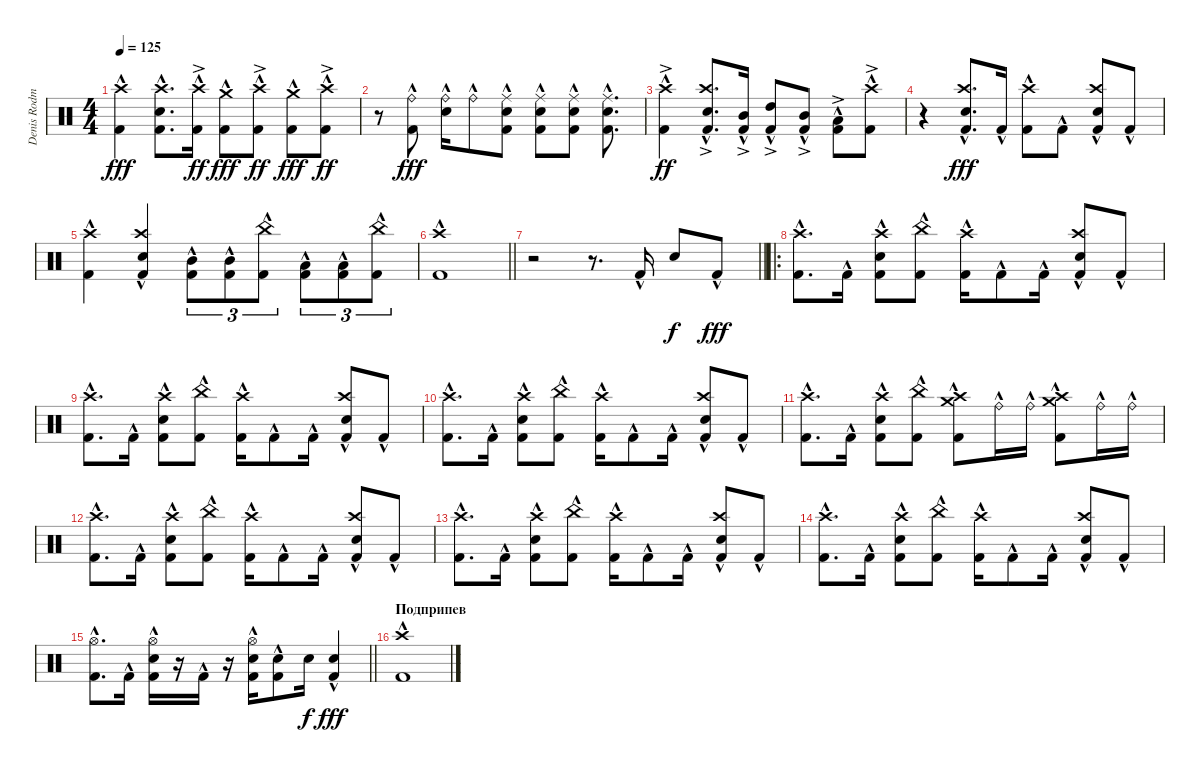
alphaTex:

\track ("Denis Rodman" "Denis Rodm") {instrument percussion}
\staff {score}
\articulation defaults
\ts (4 4)
\tempo 125
\clef neutral
\ks c
("Kick (hit) 2"{hac} "Crash high (hit)"{hac}).4{dy fff} ("Kick (hit) 2"{hac} "Snare (hit) 2" "Crash high (hit)"{hac}).8{d} ("Kick (hit) 2"{hac} "Crash high (hit)"{ac}).16{dy ff} ("Kick (hit) 2"{hac} "Crash medium (hit)"{hac}).8{dy fff} ("Kick (hit) 2"{hac} "Crash high (hit)"{ac}).8{dy ff} ("Kick (hit) 2"{hac} "Crash medium (hit)"{hac}).8{dy fff} ("Kick (hit) 2"{hac} "Crash high (hit)"{ac}).8{dy ff} |
r.8 ("Ride (bell)"{hac} "Kick (hit) 2"{hac}).8{dy fff} ("Ride (bell)"{hac} "Snare (hit) 2").16 "Ride (bell)"{hac}.8 ("Kick (hit) 2"{hac} "Snare (hit) 2" "Ride (middle)"{hac}).8 ("Kick (hit) 2"{hac} "Snare (hit) 2" "Ride (middle)"{hac}).8 ("Kick (hit) 2"{hac} "Snare (hit) 2" "Ride (middle)"{hac}).8 ("Kick (hit) 2"{hac} "Snare (hit) 2" "Ride (middle)"{hac}).8{d} |
("Kick (hit) 2"{hac} "Crash high (hit)"{ac}).4{dy ff} ("Kick (hit) 2"{hac} "Snare (hit) 2" "Crash high (hit)"{ac}).8{d} ("Kick (hit) 2"{hac} "Mid Tom (hit)"{ac}).16 ("Kick (hit) 2"{hac} "High Tom (hit)"{ac}).8 ("Kick (hit) 2"{hac} "Mid Tom (hit)"{ac}).8 ("Kick (hit) 2"{hac} "Low Tom (hit)"{ac}).8 ("Kick (hit) 2"{hac} "Crash high (hit)"{ac}).8 |
r.4 ("Kick (hit) 2"{hac} "Snare (hit) 2" "Crash high (hit)").8{d dy fff} "Kick (hit) 2"{hac}.16 ("Kick (hit) 2"{hac} "Crash high (hit)").8 "Kick (hit) 2"{hac}.8 ("Kick (hit) 2"{hac} "Snare (hit) 2" "Crash high (hit)").8 "Kick (hit) 2"{hac}.8 |
("Kick (hit) 2"{hac} "Crash high (hit)").4 ("Kick (hit) 2"{hac} "Snare (hit) 2" "Crash high (hit)").4 ("Mid Tom (hit)"{hac} "Kick (hit) 2"{hac}).8{tu (3 2)} ("Mid Tom (hit)"{hac} "Kick (hit) 2"{hac}).8{tu (3 2)} ("China (hit)"{hac} "Kick (hit) 2"{hac}).8{tu (3 2)} ("Low Tom (hit)"{hac} "Kick (hit) 2"{hac}).8{tu (3 2)} ("Low Tom (hit)"{hac} "Kick (hit) 2"{hac}).8{tu (3 2)} ("China (hit)"{hac} "Kick (hit) 2"{hac}).8{tu (3 2)} |
\barLineRight lightlight
("Kick (hit) 2"{hac} "Crash high (hit)").1 |
\barLineRight lightlight
r.2 r.8{d} "Kick (hit) 2"{hac}.16 "Snare (hit) 2".8{dy f} "Kick (hit) 2"{hac}.8{dy fff} |
\ro
("Kick (hit) 2"{hac} "Crash high (hit)").8{d} "Kick (hit) 2"{hac}.16 ("Kick (hit) 2"{hac} "Snare (hit) 2" "Crash high (hit)").8 ("Kick (hit) 2"{hac} "China (hit)"{hac}).8 ("Kick (hit) 2"{hac} "Crash high (hit)").16 "Kick (hit) 2"{hac}.8 "Kick (hit) 2"{hac}.16 ("Kick (hit) 2"{hac} "Snare (hit) 2" "Crash high (hit)").8 "Kick (hit) 2"{hac}.8 |
("Kick (hit) 2"{hac} "Crash high (hit)").8{d} "Kick (hit) 2"{hac}.16 ("Kick (hit) 2"{hac} "Snare (hit) 2" "Crash high (hit)").8 ("Kick (hit) 2"{hac} "China (hit)"{hac}).8 ("Kick (hit) 2"{hac} "Crash high (hit)").16 "Kick (hit) 2"{hac}.8 "Kick (hit) 2"{hac}.16 ("Kick (hit) 2"{hac} "Snare (hit) 2" "Crash high (hit)").8 "Kick (hit) 2"{hac}.8 |
("Kick (hit) 2"{hac} "Crash high (hit)").8{d} "Kick (hit) 2"{hac}.16 ("Kick (hit) 2"{hac} "Snare (hit) 2" "Crash high (hit)").8 ("Kick (hit) 2"{hac} "China (hit)"{hac}).8 ("Kick (hit) 2"{hac} "Crash high (hit)").16 "Kick (hit) 2"{hac}.8 "Kick (hit) 2"{hac}.16 ("Kick (hit) 2"{hac} "Snare (hit) 2" "Crash high (hit)").8 "Kick (hit) 2"{hac}.8 |
("Kick (hit) 2"{hac} "Crash high (hit)").8{d} "Kick (hit) 2"{hac}.16 ("Kick (hit) 2"{hac} "Snare (hit) 2" "Crash high (hit)").8 ("Kick (hit) 2"{hac} "China (hit)"{hac}).8 ("Crash high (hit)" "Crash medium (hit)" "Kick (hit) 2"{hac}).8 "Ride (bell)"{hac}.16 "Ride (bell)"{hac}.16 ("Crash high (hit)" "Crash medium (hit)" "Kick (hit) 2"{hac}).8 "Ride (bell)"{hac}.16 "Ride (bell)"{hac}.16 |
("Kick (hit) 2"{hac} "Crash high (hit)").8{d} "Kick (hit) 2"{hac}.16 ("Kick (hit) 2"{hac} "Snare (hit) 2" "Crash high (hit)").8 ("Kick (hit) 2"{hac} "China (hit)"{hac}).8 ("Kick (hit) 2"{hac} "Crash high (hit)").16 "Kick (hit) 2"{hac}.8 "Kick (hit) 2"{hac}.16 ("Kick (hit) 2"{hac} "Snare (hit) 2" "Crash high (hit)").8 "Kick (hit) 2"{hac}.8 |
("Kick (hit) 2"{hac} "Crash high (hit)").8{d} "Kick (hit) 2"{hac}.16 ("Kick (hit) 2"{hac} "Snare (hit) 2" "Crash high (hit)").8 ("Kick (hit) 2"{hac} "China (hit)"{hac}).8 ("Kick (hit) 2"{hac} "Crash high (hit)").16 "Kick (hit) 2"{hac}.8 "Kick (hit) 2"{hac}.16 ("Kick (hit) 2"{hac} "Snare (hit) 2" "Crash high (hit)").8 "Kick (hit) 2"{hac}.8 |
("Kick (hit) 2"{hac} "Crash high (hit)").8{d} "Kick (hit) 2"{hac}.16 ("Kick (hit) 2"{hac} "Snare (hit) 2" "Crash high (hit)").8 ("Kick (hit) 2"{hac} "China (hit)"{hac}).8 ("Kick (hit) 2"{hac} "Crash high (hit)").16 "Kick (hit) 2"{hac}.8 "Kick (hit) 2"{hac}.16 ("Kick (hit) 2"{hac} "Snare (hit) 2" "Crash high (hit)").8 "Kick (hit) 2"{hac}.8 |
\barLineRight lightlight
("Kick (hit) 2"{hac} "Hi-Hat (open)").8{d} "Kick (hit) 2"{hac}.16 ("Kick (hit) 2"{hac} "Snare (hit) 2" "Hi-Hat (open)").16 r.16 "Kick (hit) 2"{hac}.16 r.16 ("Kick (hit) 2"{hac} "Snare (hit) 2" "Hi-Hat (open)").16 ("Kick (hit) 2"{hac} "Snare (hit) 2").8 "Snare (hit) 2".16{dy f} ("Kick (hit) 2"{hac} "Snare (hit) 2").4{dy fff} |
\section ("" "Подприпев")
("Crash high (hit)"{hac} "Kick (hit) 2"{hac}).1
